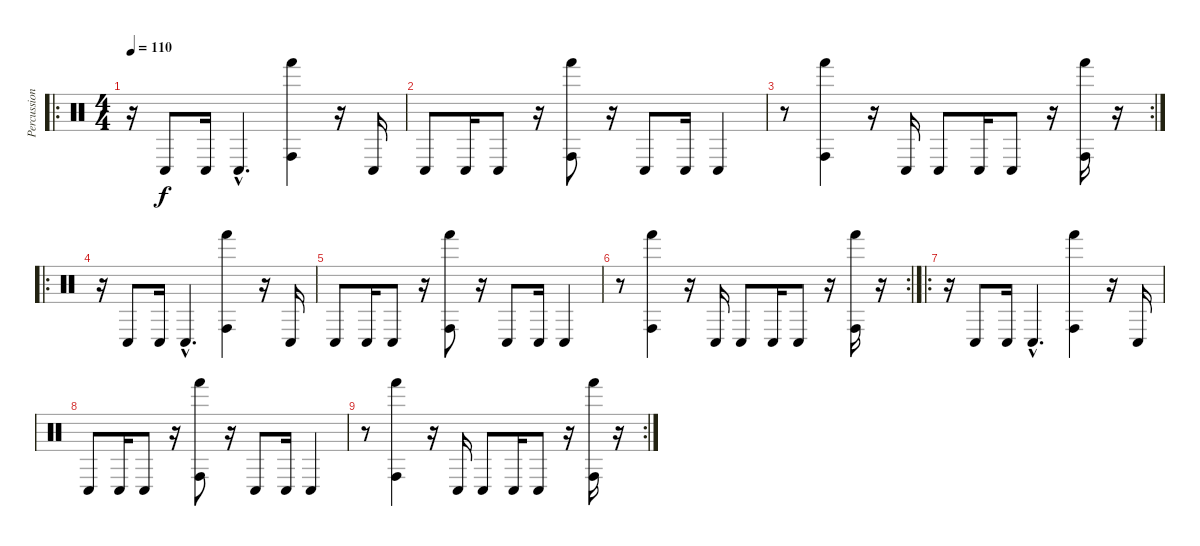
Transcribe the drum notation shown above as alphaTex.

\track ("Percussion" "Percussion") {instrument percussion}
\staff {score}
\articulation defaults
\ro
\ts (4 4)
\tempo 110
\clef neutral
\ks c
r.16{dy f} "Conga low (hit)".8 "Conga low (hit)".16 "Conga low (hit)"{hac}.4{d} ("Conga high (hit)" "Hand (hit)").4 r.16 "Conga low (hit)".16 |
"Conga low (hit)".8 "Conga low (hit)".16 "Conga low (hit)".8 r.16 ("Conga high (hit)" "Hand (hit)").8 r.16 "Conga low (hit)".8 "Conga low (hit)".16 "Conga low (hit)".4 |
\rc 2
r.8 ("Conga high (hit)" "Hand (hit)").4 r.16 "Conga low (hit)".16 "Conga low (hit)".8 "Conga low (hit)".16 "Conga low (hit)".8 r.16 ("Conga high (hit)" "Hand (hit)").16 r.16 |
\ro
r.16 "Conga low (hit)".8 "Conga low (hit)".16 "Conga low (hit)"{hac}.4{d} ("Conga high (hit)" "Hand (hit)").4 r.16 "Conga low (hit)".16 |
"Conga low (hit)".8 "Conga low (hit)".16 "Conga low (hit)".8 r.16 ("Conga high (hit)" "Hand (hit)").8 r.16 "Conga low (hit)".8 "Conga low (hit)".16 "Conga low (hit)".4 |
\rc 2
r.8 ("Conga high (hit)" "Hand (hit)").4 r.16 "Conga low (hit)".16 "Conga low (hit)".8 "Conga low (hit)".16 "Conga low (hit)".8 r.16 ("Conga high (hit)" "Hand (hit)").16 r.16 |
\ro
r.16 "Conga low (hit)".8 "Conga low (hit)".16 "Conga low (hit)"{hac}.4{d} ("Conga high (hit)" "Hand (hit)").4 r.16 "Conga low (hit)".16 |
"Conga low (hit)".8 "Conga low (hit)".16 "Conga low (hit)".8 r.16 ("Conga high (hit)" "Hand (hit)").8 r.16 "Conga low (hit)".8 "Conga low (hit)".16 "Conga low (hit)".4 |
\rc 2
r.8 ("Conga high (hit)" "Hand (hit)").4 r.16 "Conga low (hit)".16 "Conga low (hit)".8 "Conga low (hit)".16 "Conga low (hit)".8 r.16 ("Conga high (hit)" "Hand (hit)").16 r.16
